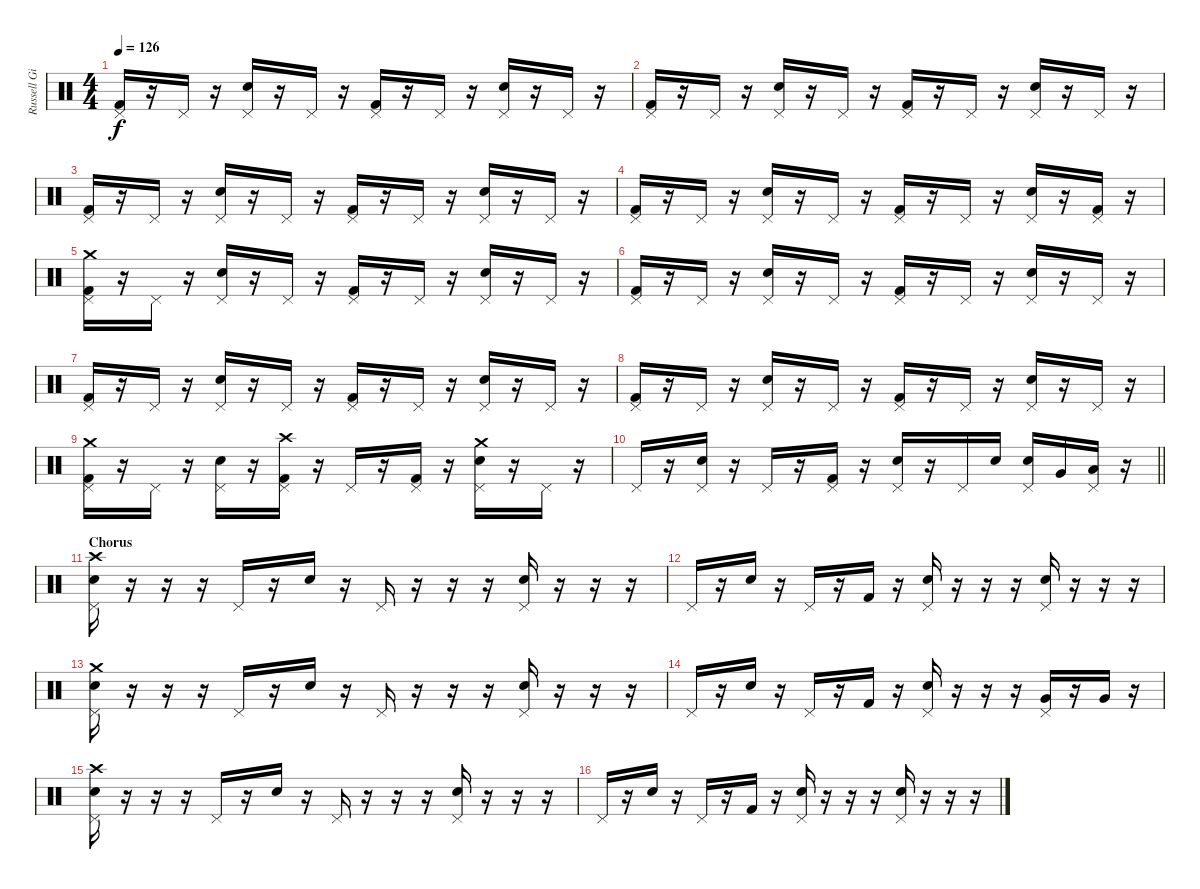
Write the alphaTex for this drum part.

\track ("Russell Gilbrook - Drums" "Russell Gi") {instrument percussion}
\staff {score}
\articulation defaults
\ts (4 4)
\tempo 126
\clef neutral
\ks c
("Pedal Hi-Hat (hit)" "Kick (hit) 2").16{dy f} r.16 "Pedal Hi-Hat (hit)".16 r.16 ("Pedal Hi-Hat (hit)" "Snare (hit) 2").16 r.16 "Pedal Hi-Hat (hit)".16 r.16 ("Pedal Hi-Hat (hit)" "Kick (hit) 2").16 r.16 "Pedal Hi-Hat (hit)".16 r.16 ("Pedal Hi-Hat (hit)" "Snare (hit) 2").16 r.16 "Pedal Hi-Hat (hit)".16 r.16 |
("Pedal Hi-Hat (hit)" "Kick (hit) 2").16 r.16 "Pedal Hi-Hat (hit)".16 r.16 ("Pedal Hi-Hat (hit)" "Snare (hit) 2").16 r.16 "Pedal Hi-Hat (hit)".16 r.16 ("Pedal Hi-Hat (hit)" "Kick (hit) 2").16 r.16 "Pedal Hi-Hat (hit)".16 r.16 ("Pedal Hi-Hat (hit)" "Snare (hit) 2").16 r.16 "Pedal Hi-Hat (hit)".16 r.16 |
("Pedal Hi-Hat (hit)" "Kick (hit) 2").16 r.16 "Pedal Hi-Hat (hit)".16 r.16 ("Pedal Hi-Hat (hit)" "Snare (hit) 2").16 r.16 "Pedal Hi-Hat (hit)".16 r.16 ("Pedal Hi-Hat (hit)" "Kick (hit) 2").16 r.16 "Pedal Hi-Hat (hit)".16 r.16 ("Pedal Hi-Hat (hit)" "Snare (hit) 2").16 r.16 "Pedal Hi-Hat (hit)".16 r.16 |
("Pedal Hi-Hat (hit)" "Kick (hit) 2").16 r.16 "Pedal Hi-Hat (hit)".16 r.16 ("Pedal Hi-Hat (hit)" "Snare (hit) 2").16 r.16 "Pedal Hi-Hat (hit)".16 r.16 ("Pedal Hi-Hat (hit)" "Kick (hit) 2").16 r.16 "Pedal Hi-Hat (hit)".16 r.16 ("Pedal Hi-Hat (hit)" "Snare (hit) 2").16 r.16 ("Pedal Hi-Hat (hit)" "Kick (hit) 2").16 r.16 |
("Crash medium (hit)" "Pedal Hi-Hat (hit)" "Kick (hit) 2").16 r.16 "Pedal Hi-Hat (hit)".16 r.16 ("Pedal Hi-Hat (hit)" "Snare (hit) 2").16 r.16 "Pedal Hi-Hat (hit)".16 r.16 ("Pedal Hi-Hat (hit)" "Kick (hit) 2").16 r.16 "Pedal Hi-Hat (hit)".16 r.16 ("Pedal Hi-Hat (hit)" "Snare (hit) 2").16 r.16 "Pedal Hi-Hat (hit)".16 r.16 |
("Pedal Hi-Hat (hit)" "Kick (hit) 2").16 r.16 "Pedal Hi-Hat (hit)".16 r.16 ("Pedal Hi-Hat (hit)" "Snare (hit) 2").16 r.16 "Pedal Hi-Hat (hit)".16 r.16 ("Pedal Hi-Hat (hit)" "Kick (hit) 2").16 r.16 "Pedal Hi-Hat (hit)".16 r.16 ("Pedal Hi-Hat (hit)" "Snare (hit) 2").16 r.16 "Pedal Hi-Hat (hit)".16 r.16 |
("Pedal Hi-Hat (hit)" "Kick (hit) 2").16 r.16 "Pedal Hi-Hat (hit)".16 r.16 ("Pedal Hi-Hat (hit)" "Snare (hit) 2").16 r.16 "Pedal Hi-Hat (hit)".16 r.16 ("Pedal Hi-Hat (hit)" "Kick (hit) 2").16 r.16 "Pedal Hi-Hat (hit)".16 r.16 ("Pedal Hi-Hat (hit)" "Snare (hit) 2").16 r.16 "Pedal Hi-Hat (hit)".16 r.16 |
("Pedal Hi-Hat (hit)" "Kick (hit) 2").16 r.16 "Pedal Hi-Hat (hit)".16 r.16 ("Pedal Hi-Hat (hit)" "Snare (hit) 2").16 r.16 "Pedal Hi-Hat (hit)".16 r.16 ("Pedal Hi-Hat (hit)" "Kick (hit) 2").16 r.16 "Pedal Hi-Hat (hit)".16 r.16 ("Pedal Hi-Hat (hit)" "Snare (hit) 2").16 r.16 "Pedal Hi-Hat (hit)".16 r.16 |
("Crash medium (hit)" "Pedal Hi-Hat (hit)" "Kick (hit) 2").16 r.16 "Pedal Hi-Hat (hit)".16 r.16 ("Pedal Hi-Hat (hit)" "Snare (hit) 2").16 r.16 ("Crash high (hit)" "Pedal Hi-Hat (hit)" "Kick (hit) 2").16 r.16 "Pedal Hi-Hat (hit)".16 r.16 ("Pedal Hi-Hat (hit)" "Kick (hit) 2").16 r.16 ("Crash medium (hit)" "Pedal Hi-Hat (hit)" "Snare (hit) 2").16 r.16 "Pedal Hi-Hat (hit)".16 r.16 |
\barLineRight lightlight "Pedal Hi-Hat (hit)".16
r.16 ("Pedal Hi-Hat (hit)" "Snare (hit) 2").16 r.16 "Pedal Hi-Hat (hit)".16 r.16 ("Pedal Hi-Hat (hit)" "Kick (hit) 2").16 r.16 ("Pedal Hi-Hat (hit)" "Snare (hit) 2").16 r.16 "Pedal Hi-Hat (hit)".16 "Snare (hit) 2".16 ("Pedal Hi-Hat (hit)" "Snare (hit) 2").16 "Very Low Tom (hit)".16 ("Low Floor Tom (hit)" "Pedal Hi-Hat (hit)").16 r.16 |
\section ("" "Chorus")
("Crash high (hit)" "Pedal Hi-Hat (hit)" "Snare (hit) 2").16 r.16 r.16 r.16 "Pedal Hi-Hat (hit)".16 r.16 "Snare (hit) 2".16 r.16 "Pedal Hi-Hat (hit)".16 r.16 r.16 r.16 ("Pedal Hi-Hat (hit)" "Snare (hit) 2").16 r.16 r.16 r.16 |
"Pedal Hi-Hat (hit)".16 r.16 "Snare (hit) 2".16 r.16 "Pedal Hi-Hat (hit)".16 r.16 "Kick (hit) 2".16 r.16 ("Pedal Hi-Hat (hit)" "Snare (hit) 2").16 r.16 r.16 r.16 ("Pedal Hi-Hat (hit)" "Snare (hit) 2").16 r.16 r.16 r.16 |
("Crash medium (hit)" "Pedal Hi-Hat (hit)" "Snare (hit) 2").16 r.16 r.16 r.16 "Pedal Hi-Hat (hit)".16 r.16 "Snare (hit) 2".16 r.16 "Pedal Hi-Hat (hit)".16 r.16 r.16 r.16 ("Pedal Hi-Hat (hit)" "Snare (hit) 2").16 r.16 r.16 r.16 |
"Pedal Hi-Hat (hit)".16 r.16 "Snare (hit) 2".16 r.16 "Pedal Hi-Hat (hit)".16 r.16 "Kick (hit) 2".16 r.16 ("Pedal Hi-Hat (hit)" "Snare (hit) 2").16 r.16 r.16 r.16 ("Very Low Tom (hit)" "Pedal Hi-Hat (hit)").16 r.16 "Very Low Tom (hit)".16 r.16 |
("Crash high (hit)" "Pedal Hi-Hat (hit)" "Snare (hit) 2").16 r.16 r.16 r.16 "Pedal Hi-Hat (hit)".16 r.16 "Snare (hit) 2".16 r.16 "Pedal Hi-Hat (hit)".16 r.16 r.16 r.16 ("Pedal Hi-Hat (hit)" "Snare (hit) 2").16 r.16 r.16 r.16 |
"Pedal Hi-Hat (hit)".16 r.16 "Snare (hit) 2".16 r.16 "Pedal Hi-Hat (hit)".16 r.16 "Kick (hit) 2".16 r.16 ("Pedal Hi-Hat (hit)" "Snare (hit) 2").16 r.16 r.16 r.16 ("Pedal Hi-Hat (hit)" "Snare (hit) 2").16 r.16 r.16 r.16
